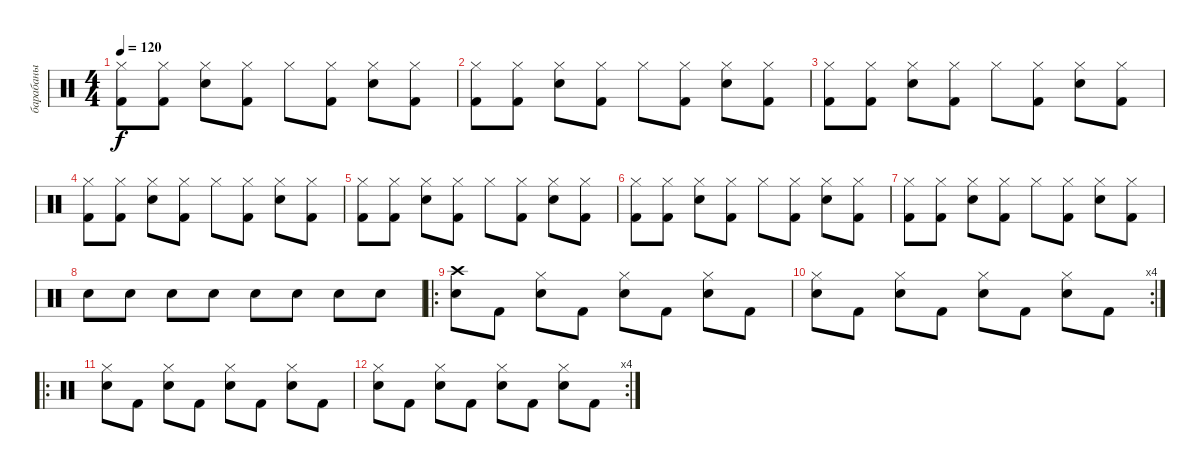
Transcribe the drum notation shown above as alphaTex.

\track ("барабаны" "барабаны") {instrument percussion}
\staff {score}
\articulation defaults
\ts (4 4)
\tempo 120
\clef neutral
\ks c
("Hi-Hat (closed)" "Kick (hit) 2").8{dy f} ("Hi-Hat (closed)" "Kick (hit) 2").8 ("Hi-Hat (closed)" "Snare (hit) 2").8 ("Hi-Hat (closed)" "Kick (hit) 2").8 "Hi-Hat (closed)".8 ("Hi-Hat (closed)" "Kick (hit) 2").8 ("Hi-Hat (closed)" "Snare (hit) 2").8 ("Hi-Hat (closed)" "Kick (hit) 2").8 |
("Hi-Hat (closed)" "Kick (hit) 2").8 ("Hi-Hat (closed)" "Kick (hit) 2").8 ("Hi-Hat (closed)" "Snare (hit) 2").8 ("Hi-Hat (closed)" "Kick (hit) 2").8 "Hi-Hat (closed)".8 ("Hi-Hat (closed)" "Kick (hit) 2").8 ("Hi-Hat (closed)" "Snare (hit) 2").8 ("Hi-Hat (closed)" "Kick (hit) 2").8 |
("Hi-Hat (closed)" "Kick (hit) 2").8 ("Hi-Hat (closed)" "Kick (hit) 2").8 ("Hi-Hat (closed)" "Snare (hit) 2").8 ("Hi-Hat (closed)" "Kick (hit) 2").8 "Hi-Hat (closed)".8 ("Hi-Hat (closed)" "Kick (hit) 2").8 ("Hi-Hat (closed)" "Snare (hit) 2").8 ("Hi-Hat (closed)" "Kick (hit) 2").8 |
("Hi-Hat (closed)" "Kick (hit) 2").8 ("Hi-Hat (closed)" "Kick (hit) 2").8 ("Hi-Hat (closed)" "Snare (hit) 2").8 ("Hi-Hat (closed)" "Kick (hit) 2").8 "Hi-Hat (closed)".8 ("Hi-Hat (closed)" "Kick (hit) 2").8 ("Hi-Hat (closed)" "Snare (hit) 2").8 ("Hi-Hat (closed)" "Kick (hit) 2").8 |
("Hi-Hat (closed)" "Kick (hit) 2").8 ("Hi-Hat (closed)" "Kick (hit) 2").8 ("Hi-Hat (closed)" "Snare (hit) 2").8 ("Hi-Hat (closed)" "Kick (hit) 2").8 "Hi-Hat (closed)".8 ("Hi-Hat (closed)" "Kick (hit) 2").8 ("Hi-Hat (closed)" "Snare (hit) 2").8 ("Hi-Hat (closed)" "Kick (hit) 2").8 |
("Hi-Hat (closed)" "Kick (hit) 2").8 ("Hi-Hat (closed)" "Kick (hit) 2").8 ("Hi-Hat (closed)" "Snare (hit) 2").8 ("Hi-Hat (closed)" "Kick (hit) 2").8 "Hi-Hat (closed)".8 ("Hi-Hat (closed)" "Kick (hit) 2").8 ("Hi-Hat (closed)" "Snare (hit) 2").8 ("Hi-Hat (closed)" "Kick (hit) 2").8 |
("Hi-Hat (closed)" "Kick (hit) 2").8 ("Hi-Hat (closed)" "Kick (hit) 2").8 ("Hi-Hat (closed)" "Snare (hit) 2").8 ("Hi-Hat (closed)" "Kick (hit) 2").8 "Hi-Hat (closed)".8 ("Hi-Hat (closed)" "Kick (hit) 2").8 ("Hi-Hat (closed)" "Snare (hit) 2").8 ("Hi-Hat (closed)" "Kick (hit) 2").8 |
"Snare (hit) 2".8 "Snare (hit) 2".8 "Snare (hit) 2".8 "Snare (hit) 2".8 "Snare (hit) 2".8 "Snare (hit) 2".8 "Snare (hit) 2".8 "Snare (hit) 2".8 |
\ro
("Crash high (hit)" "Snare (hit) 2").8 "Kick (hit) 2".8 ("Hi-Hat (closed)" "Snare (hit) 2").8 "Kick (hit) 2".8 ("Hi-Hat (closed)" "Snare (hit) 2").8 "Kick (hit) 2".8 ("Hi-Hat (closed)" "Snare (hit) 2").8 "Kick (hit) 2".8 |
\rc 4
("Hi-Hat (closed)" "Snare (hit) 2").8 "Kick (hit) 2".8 ("Hi-Hat (closed)" "Snare (hit) 2").8 "Kick (hit) 2".8 ("Hi-Hat (closed)" "Snare (hit) 2").8 "Kick (hit) 2".8 ("Hi-Hat (closed)" "Snare (hit) 2").8 "Kick (hit) 2".8 |
\ro
("Hi-Hat (closed)" "Snare (hit) 2").8 "Kick (hit) 2".8 ("Hi-Hat (closed)" "Snare (hit) 2").8 "Kick (hit) 2".8 ("Hi-Hat (closed)" "Snare (hit) 2").8 "Kick (hit) 2".8 ("Hi-Hat (closed)" "Snare (hit) 2").8 "Kick (hit) 2".8 |
\rc 4
("Hi-Hat (closed)" "Snare (hit) 2").8 "Kick (hit) 2".8 ("Hi-Hat (closed)" "Snare (hit) 2").8 "Kick (hit) 2".8 ("Hi-Hat (closed)" "Snare (hit) 2").8 "Kick (hit) 2".8 ("Hi-Hat (closed)" "Snare (hit) 2").8 "Kick (hit) 2".8
